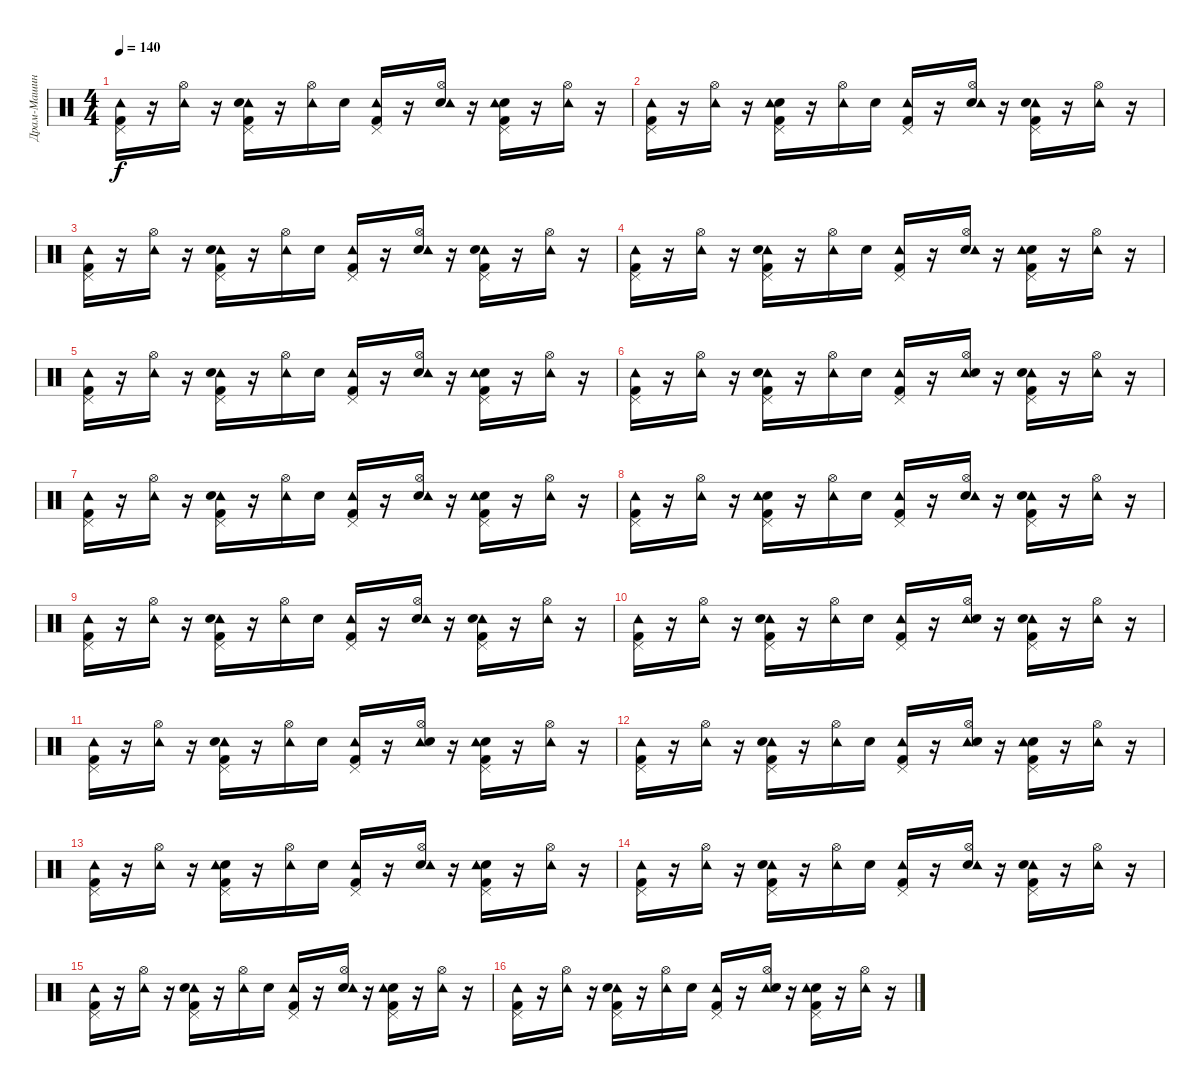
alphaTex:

\track ("Драм-Машина" "Драм-Машин") {instrument percussion}
\staff {score}
\articulation defaults
\ts (4 4)
\tempo 140
\clef neutral
\ks c
("Tambourine (hit)" "Kick (hit) 2" "Pedal Hi-Hat (hit)").16{dy f} r.16 ("Tambourine (hit)" "Hi-Hat (open)").16 r.16 ("Tambourine (hit)" "Pedal Hi-Hat (hit)" "Kick (hit) 2" "Snare (hit) 2").16 r.16 ("Tambourine (hit)" "Hi-Hat (open)").16 "Snare (hit) 2".16 ("Pedal Hi-Hat (hit)" "Tambourine (hit)" "Kick (hit) 2").16 r.16 ("Hi-Hat (open)" "Snare (hit) 2" "Tambourine (hit)").16 r.16 ("Snare (hit) 2" "Kick (hit) 2" "Pedal Hi-Hat (hit)" "Tambourine (hit)").16 r.16 ("Hi-Hat (open)" "Tambourine (hit)").16 r.16 |
("Kick (hit) 2" "Tambourine (hit)" "Pedal Hi-Hat (hit)").16 r.16 ("Hi-Hat (open)" "Tambourine (hit)").16 r.16 ("Pedal Hi-Hat (hit)" "Snare (hit) 2" "Tambourine (hit)" "Kick (hit) 2").16 r.16 ("Hi-Hat (open)" "Tambourine (hit)").16 "Snare (hit) 2".16 ("Tambourine (hit)" "Kick (hit) 2" "Pedal Hi-Hat (hit)").16 r.16 ("Snare (hit) 2" "Tambourine (hit)" "Hi-Hat (open)").16 r.16 ("Kick (hit) 2" "Tambourine (hit)" "Snare (hit) 2" "Pedal Hi-Hat (hit)").16 r.16 ("Hi-Hat (open)" "Tambourine (hit)").16 r.16 |
("Tambourine (hit)" "Pedal Hi-Hat (hit)" "Kick (hit) 2").16 r.16 ("Tambourine (hit)" "Hi-Hat (open)").16 r.16 ("Tambourine (hit)" "Pedal Hi-Hat (hit)" "Snare (hit) 2" "Kick (hit) 2").16 r.16 ("Tambourine (hit)" "Hi-Hat (open)").16 "Snare (hit) 2".16 ("Pedal Hi-Hat (hit)" "Tambourine (hit)" "Kick (hit) 2").16 r.16 ("Snare (hit) 2" "Tambourine (hit)" "Hi-Hat (open)").16 r.16 ("Tambourine (hit)" "Snare (hit) 2" "Pedal Hi-Hat (hit)" "Kick (hit) 2").16 r.16 ("Tambourine (hit)" "Hi-Hat (open)").16 r.16 |
("Tambourine (hit)" "Kick (hit) 2" "Pedal Hi-Hat (hit)").16 r.16 ("Hi-Hat (open)" "Tambourine (hit)").16 r.16 ("Pedal Hi-Hat (hit)" "Kick (hit) 2" "Tambourine (hit)" "Snare (hit) 2").16 r.16 ("Tambourine (hit)" "Hi-Hat (open)").16 "Snare (hit) 2".16 ("Tambourine (hit)" "Pedal Hi-Hat (hit)" "Kick (hit) 2").16 r.16 ("Snare (hit) 2" "Tambourine (hit)" "Hi-Hat (open)").16 r.16 ("Snare (hit) 2" "Kick (hit) 2" "Pedal Hi-Hat (hit)" "Tambourine (hit)").16 r.16 ("Tambourine (hit)" "Hi-Hat (open)").16 r.16 |
("Pedal Hi-Hat (hit)" "Tambourine (hit)" "Kick (hit) 2").16 r.16 ("Tambourine (hit)" "Hi-Hat (open)").16 r.16 ("Pedal Hi-Hat (hit)" "Kick (hit) 2" "Tambourine (hit)" "Snare (hit) 2").16 r.16 ("Tambourine (hit)" "Hi-Hat (open)").16 "Snare (hit) 2".16 ("Kick (hit) 2" "Pedal Hi-Hat (hit)" "Tambourine (hit)").16 r.16 ("Snare (hit) 2" "Tambourine (hit)" "Hi-Hat (open)").16 r.16 ("Snare (hit) 2" "Pedal Hi-Hat (hit)" "Kick (hit) 2" "Tambourine (hit)").16 r.16 ("Tambourine (hit)" "Hi-Hat (open)").16 r.16 |
("Pedal Hi-Hat (hit)" "Kick (hit) 2" "Tambourine (hit)").16 r.16 ("Tambourine (hit)" "Hi-Hat (open)").16 r.16 ("Kick (hit) 2" "Tambourine (hit)" "Pedal Hi-Hat (hit)" "Snare (hit) 2").16 r.16 ("Tambourine (hit)" "Hi-Hat (open)").16 "Snare (hit) 2".16 ("Tambourine (hit)" "Pedal Hi-Hat (hit)" "Kick (hit) 2").16 r.16 ("Tambourine (hit)" "Snare (hit) 2" "Hi-Hat (open)").16 r.16 ("Pedal Hi-Hat (hit)" "Kick (hit) 2" "Tambourine (hit)" "Snare (hit) 2").16 r.16 ("Tambourine (hit)" "Hi-Hat (open)").16 r.16 |
("Pedal Hi-Hat (hit)" "Kick (hit) 2" "Tambourine (hit)").16 r.16 ("Tambourine (hit)" "Hi-Hat (open)").16 r.16 ("Kick (hit) 2" "Tambourine (hit)" "Pedal Hi-Hat (hit)" "Snare (hit) 2").16 r.16 ("Hi-Hat (open)" "Tambourine (hit)").16 "Snare (hit) 2".16 ("Tambourine (hit)" "Kick (hit) 2" "Pedal Hi-Hat (hit)").16 r.16 ("Hi-Hat (open)" "Snare (hit) 2" "Tambourine (hit)").16 r.16 ("Snare (hit) 2" "Tambourine (hit)" "Kick (hit) 2" "Pedal Hi-Hat (hit)").16 r.16 ("Hi-Hat (open)" "Tambourine (hit)").16 r.16 |
("Tambourine (hit)" "Pedal Hi-Hat (hit)" "Kick (hit) 2").16 r.16 ("Tambourine (hit)" "Hi-Hat (open)").16 r.16 ("Snare (hit) 2" "Tambourine (hit)" "Kick (hit) 2" "Pedal Hi-Hat (hit)").16 r.16 ("Hi-Hat (open)" "Tambourine (hit)").16 "Snare (hit) 2".16 ("Pedal Hi-Hat (hit)" "Kick (hit) 2" "Tambourine (hit)").16 r.16 ("Snare (hit) 2" "Hi-Hat (open)" "Tambourine (hit)").16 r.16 ("Kick (hit) 2" "Pedal Hi-Hat (hit)" "Tambourine (hit)" "Snare (hit) 2").16 r.16 ("Tambourine (hit)" "Hi-Hat (open)").16 r.16 |
("Tambourine (hit)" "Pedal Hi-Hat (hit)" "Kick (hit) 2").16 r.16 ("Hi-Hat (open)" "Tambourine (hit)").16 r.16 ("Kick (hit) 2" "Tambourine (hit)" "Snare (hit) 2" "Pedal Hi-Hat (hit)").16 r.16 ("Tambourine (hit)" "Hi-Hat (open)").16 "Snare (hit) 2".16 ("Kick (hit) 2" "Pedal Hi-Hat (hit)" "Tambourine (hit)").16 r.16 ("Hi-Hat (open)" "Snare (hit) 2" "Tambourine (hit)").16 r.16 ("Pedal Hi-Hat (hit)" "Tambourine (hit)" "Snare (hit) 2" "Kick (hit) 2").16 r.16 ("Tambourine (hit)" "Hi-Hat (open)").16 r.16 |
("Tambourine (hit)" "Pedal Hi-Hat (hit)" "Kick (hit) 2").16 r.16 ("Hi-Hat (open)" "Tambourine (hit)").16 r.16 ("Kick (hit) 2" "Tambourine (hit)" "Pedal Hi-Hat (hit)" "Snare (hit) 2").16 r.16 ("Tambourine (hit)" "Hi-Hat (open)").16 "Snare (hit) 2".16 ("Pedal Hi-Hat (hit)" "Tambourine (hit)" "Kick (hit) 2").16 r.16 ("Hi-Hat (open)" "Tambourine (hit)" "Snare (hit) 2").16 r.16 ("Tambourine (hit)" "Kick (hit) 2" "Pedal Hi-Hat (hit)" "Snare (hit) 2").16 r.16 ("Tambourine (hit)" "Hi-Hat (open)").16 r.16 |
("Tambourine (hit)" "Pedal Hi-Hat (hit)" "Kick (hit) 2").16 r.16 ("Tambourine (hit)" "Hi-Hat (open)").16 r.16 ("Tambourine (hit)" "Pedal Hi-Hat (hit)" "Snare (hit) 2" "Kick (hit) 2").16 r.16 ("Hi-Hat (open)" "Tambourine (hit)").16 "Snare (hit) 2".16 ("Pedal Hi-Hat (hit)" "Tambourine (hit)" "Kick (hit) 2").16 r.16 ("Hi-Hat (open)" "Tambourine (hit)" "Snare (hit) 2").16 r.16 ("Snare (hit) 2" "Kick (hit) 2" "Tambourine (hit)" "Pedal Hi-Hat (hit)").16 r.16 ("Tambourine (hit)" "Hi-Hat (open)").16 r.16 |
("Tambourine (hit)" "Kick (hit) 2" "Pedal Hi-Hat (hit)").16 r.16 ("Hi-Hat (open)" "Tambourine (hit)").16 r.16 ("Tambourine (hit)" "Pedal Hi-Hat (hit)" "Kick (hit) 2" "Snare (hit) 2").16 r.16 ("Tambourine (hit)" "Hi-Hat (open)").16 "Snare (hit) 2".16 ("Pedal Hi-Hat (hit)" "Tambourine (hit)" "Kick (hit) 2").16 r.16 ("Hi-Hat (open)" "Tambourine (hit)" "Snare (hit) 2").16 r.16 ("Snare (hit) 2" "Kick (hit) 2" "Tambourine (hit)" "Pedal Hi-Hat (hit)").16 r.16 ("Hi-Hat (open)" "Tambourine (hit)").16 r.16 |
("Kick (hit) 2" "Tambourine (hit)" "Pedal Hi-Hat (hit)").16 r.16 ("Tambourine (hit)" "Hi-Hat (open)").16 r.16 ("Pedal Hi-Hat (hit)" "Kick (hit) 2" "Snare (hit) 2" "Tambourine (hit)").16 r.16 ("Hi-Hat (open)" "Tambourine (hit)").16 "Snare (hit) 2".16 ("Pedal Hi-Hat (hit)" "Kick (hit) 2" "Tambourine (hit)").16 r.16 ("Snare (hit) 2" "Tambourine (hit)" "Hi-Hat (open)").16 r.16 ("Kick (hit) 2" "Snare (hit) 2" "Tambourine (hit)" "Pedal Hi-Hat (hit)").16 r.16 ("Tambourine (hit)" "Hi-Hat (open)").16 r.16 |
("Tambourine (hit)" "Kick (hit) 2" "Pedal Hi-Hat (hit)").16 r.16 ("Tambourine (hit)" "Hi-Hat (open)").16 r.16 ("Tambourine (hit)" "Kick (hit) 2" "Snare (hit) 2" "Pedal Hi-Hat (hit)").16 r.16 ("Hi-Hat (open)" "Tambourine (hit)").16 "Snare (hit) 2".16 ("Pedal Hi-Hat (hit)" "Tambourine (hit)" "Kick (hit) 2").16 r.16 ("Snare (hit) 2" "Tambourine (hit)" "Hi-Hat (open)").16 r.16 ("Pedal Hi-Hat (hit)" "Kick (hit) 2" "Tambourine (hit)" "Snare (hit) 2").16 r.16 ("Tambourine (hit)" "Hi-Hat (open)").16 r.16 |
("Pedal Hi-Hat (hit)" "Kick (hit) 2" "Tambourine (hit)").16 r.16 ("Hi-Hat (open)" "Tambourine (hit)").16 r.16 ("Kick (hit) 2" "Tambourine (hit)" "Pedal Hi-Hat (hit)" "Snare (hit) 2").16 r.16 ("Hi-Hat (open)" "Tambourine (hit)").16 "Snare (hit) 2".16 ("Tambourine (hit)" "Pedal Hi-Hat (hit)" "Kick (hit) 2").16 r.16 ("Snare (hit) 2" "Hi-Hat (open)" "Tambourine (hit)").16 r.16 ("Snare (hit) 2" "Tambourine (hit)" "Kick (hit) 2" "Pedal Hi-Hat (hit)").16 r.16 ("Hi-Hat (open)" "Tambourine (hit)").16 r.16 |
("Tambourine (hit)" "Pedal Hi-Hat (hit)" "Kick (hit) 2").16 r.16 ("Tambourine (hit)" "Hi-Hat (open)").16 r.16 ("Tambourine (hit)" "Kick (hit) 2" "Pedal Hi-Hat (hit)" "Snare (hit) 2").16 r.16 ("Tambourine (hit)" "Hi-Hat (open)").16 "Snare (hit) 2".16 ("Pedal Hi-Hat (hit)" "Kick (hit) 2" "Tambourine (hit)").16 r.16 ("Tambourine (hit)" "Snare (hit) 2" "Hi-Hat (open)").16 r.16 ("Pedal Hi-Hat (hit)" "Snare (hit) 2" "Kick (hit) 2" "Tambourine (hit)").16 r.16 ("Tambourine (hit)" "Hi-Hat (open)").16 r.16
